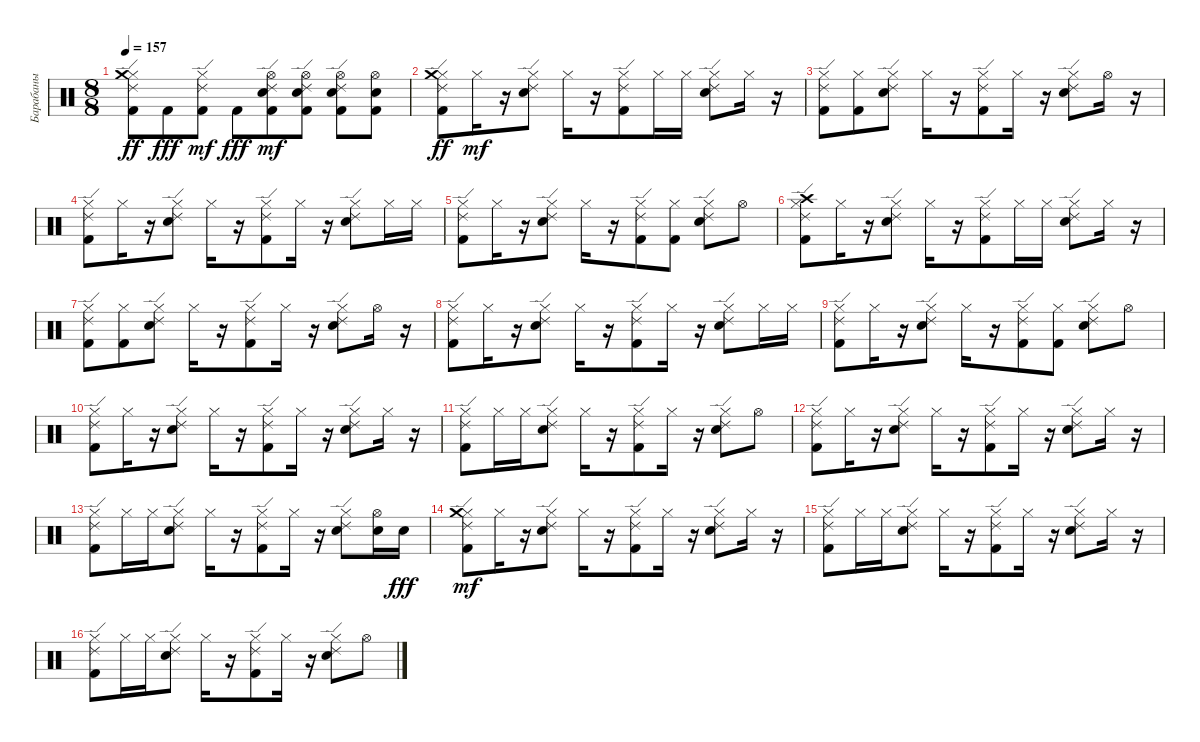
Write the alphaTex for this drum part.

\track ("Барабаны" "Барабаны") {instrument percussion}
\staff {score}
\articulation defaults
\ts (8 8)
\tempo 157
\clef neutral
\ks c
("Kick (hit) 2" "Hi-Hat (closed)" "Ride (edge) 2" "Crash medium (hit)").8{dy ff} "Kick (hit) 2".8{dy fff} ("Kick (hit) 2" "Hi-Hat (closed)" "Ride (edge) 2").8{dy mf} "Kick (hit) 2".8{dy fff} ("Kick (hit) 2" "Snare (hit) 2" "Hi-Hat (open)" "Ride (edge) 2").8{dy mf} ("Kick (hit) 2" "Snare (hit) 2" "Hi-Hat (open)" "Ride (edge) 2").8 ("Kick (hit) 2" "Snare (hit) 2" "Hi-Hat (open)" "Ride (edge) 2").8 ("Kick (hit) 2" "Snare (hit) 2" "Hi-Hat (open)").8 |
("Kick (hit) 2" "Hi-Hat (closed)" "Ride (edge) 2" "Crash medium (hit)").8{dy ff} "Hi-Hat (closed)".16{dy mf} r.16 ("Snare (hit) 2" "Hi-Hat (closed)" "Ride (edge) 2").8 "Hi-Hat (closed)".16 r.16 ("Kick (hit) 2" "Hi-Hat (closed)" "Ride (edge) 2").8 "Hi-Hat (closed)".16 "Hi-Hat (closed)".16 ("Snare (hit) 2" "Hi-Hat (closed)" "Ride (edge) 2").8 "Hi-Hat (closed)".16 r.16 |
("Kick (hit) 2" "Hi-Hat (closed)" "Ride (edge) 2").8 ("Kick (hit) 2" "Hi-Hat (closed)").8 ("Snare (hit) 2" "Hi-Hat (closed)" "Ride (edge) 2").8 "Hi-Hat (closed)".16 r.16 ("Kick (hit) 2" "Hi-Hat (closed)" "Ride (edge) 2").8 "Hi-Hat (closed)".16 r.16 ("Snare (hit) 2" "Hi-Hat (closed)" "Ride (edge) 2").8 "Hi-Hat (open)".16 r.16 |
("Kick (hit) 2" "Hi-Hat (closed)" "Ride (edge) 2").8 "Hi-Hat (closed)".16 r.16 ("Snare (hit) 2" "Hi-Hat (closed)" "Ride (edge) 2").8 "Hi-Hat (closed)".16 r.16 ("Kick (hit) 2" "Hi-Hat (closed)" "Ride (edge) 2").8 "Hi-Hat (closed)".16 r.16 ("Snare (hit) 2" "Hi-Hat (closed)" "Ride (edge) 2").8 "Hi-Hat (closed)".16 "Hi-Hat (closed)".16 |
("Kick (hit) 2" "Hi-Hat (closed)" "Ride (edge) 2").8 "Hi-Hat (closed)".16 r.16 ("Snare (hit) 2" "Hi-Hat (closed)" "Ride (edge) 2").8 "Hi-Hat (closed)".16 r.16 ("Kick (hit) 2" "Hi-Hat (closed)" "Ride (edge) 2").8 ("Kick (hit) 2" "Hi-Hat (closed)").8 ("Snare (hit) 2" "Hi-Hat (closed)" "Ride (edge) 2").8 "Hi-Hat (open)".8 |
("Kick (hit) 2" "Hi-Hat (closed)" "Ride (edge) 2" "Crash high (hit)").8 "Hi-Hat (closed)".16 r.16 ("Snare (hit) 2" "Hi-Hat (closed)" "Ride (edge) 2").8 "Hi-Hat (closed)".16 r.16 ("Kick (hit) 2" "Hi-Hat (closed)" "Ride (edge) 2").8 "Hi-Hat (closed)".16 "Hi-Hat (closed)".16 ("Snare (hit) 2" "Hi-Hat (closed)" "Ride (edge) 2").8 "Hi-Hat (closed)".16 r.16 |
("Kick (hit) 2" "Hi-Hat (closed)" "Ride (edge) 2").8 ("Kick (hit) 2" "Hi-Hat (closed)").8 ("Snare (hit) 2" "Hi-Hat (closed)" "Ride (edge) 2").8 "Hi-Hat (closed)".16 r.16 ("Kick (hit) 2" "Hi-Hat (closed)" "Ride (edge) 2").8 "Hi-Hat (closed)".16 r.16 ("Snare (hit) 2" "Hi-Hat (closed)" "Ride (edge) 2").8 "Hi-Hat (open)".16 r.16 |
("Kick (hit) 2" "Hi-Hat (closed)" "Ride (edge) 2").8 "Hi-Hat (closed)".16 r.16 ("Snare (hit) 2" "Hi-Hat (closed)" "Ride (edge) 2").8 "Hi-Hat (closed)".16 r.16 ("Kick (hit) 2" "Hi-Hat (closed)" "Ride (edge) 2").8 "Hi-Hat (closed)".16 r.16 ("Snare (hit) 2" "Hi-Hat (closed)" "Ride (edge) 2").8 "Hi-Hat (closed)".16 "Hi-Hat (closed)".16 |
("Kick (hit) 2" "Hi-Hat (closed)" "Ride (edge) 2").8 "Hi-Hat (closed)".16 r.16 ("Snare (hit) 2" "Hi-Hat (closed)" "Ride (edge) 2").8 "Hi-Hat (closed)".16 r.16 ("Kick (hit) 2" "Hi-Hat (closed)" "Ride (edge) 2").8 ("Kick (hit) 2" "Hi-Hat (closed)").8 ("Snare (hit) 2" "Hi-Hat (closed)" "Ride (edge) 2").8 "Hi-Hat (open)".8 |
("Kick (hit) 2" "Hi-Hat (closed)" "Ride (edge) 2").8 "Hi-Hat (closed)".16 r.16 ("Snare (hit) 2" "Hi-Hat (closed)" "Ride (edge) 2").8 "Hi-Hat (closed)".16 r.16 ("Kick (hit) 2" "Hi-Hat (closed)" "Ride (edge) 2").8 "Hi-Hat (closed)".16 r.16 ("Snare (hit) 2" "Hi-Hat (closed)" "Ride (edge) 2").8 "Hi-Hat (closed)".16 r.16 |
("Kick (hit) 2" "Hi-Hat (closed)" "Ride (edge) 2").8 "Hi-Hat (closed)".16 "Hi-Hat (closed)".16 ("Snare (hit) 2" "Hi-Hat (closed)" "Ride (edge) 2").8 "Hi-Hat (closed)".16 r.16 ("Kick (hit) 2" "Hi-Hat (closed)" "Ride (edge) 2").8 "Hi-Hat (closed)".16 r.16 ("Snare (hit) 2" "Hi-Hat (closed)" "Ride (edge) 2").8 "Hi-Hat (open)".8 |
("Kick (hit) 2" "Hi-Hat (closed)" "Ride (edge) 2").8 "Hi-Hat (closed)".16 r.16 ("Snare (hit) 2" "Hi-Hat (closed)" "Ride (edge) 2").8 "Hi-Hat (closed)".16 r.16 ("Kick (hit) 2" "Hi-Hat (closed)" "Ride (edge) 2").8 "Hi-Hat (closed)".16 r.16 ("Snare (hit) 2" "Hi-Hat (closed)" "Ride (edge) 2").8 "Hi-Hat (closed)".16 r.16 |
("Kick (hit) 2" "Hi-Hat (closed)" "Ride (edge) 2").8 "Hi-Hat (closed)".16 "Hi-Hat (closed)".16 ("Snare (hit) 2" "Hi-Hat (closed)" "Ride (edge) 2").8 "Hi-Hat (closed)".16 r.16 ("Kick (hit) 2" "Hi-Hat (closed)" "Ride (edge) 2").8 "Hi-Hat (closed)".16 r.16 ("Snare (hit) 2" "Hi-Hat (closed)" "Ride (edge) 2").8 ("Snare (hit) 2" "Hi-Hat (open)").16 "Snare (hit) 2".16{dy fff} |
("Kick (hit) 2" "Hi-Hat (closed)" "Ride (edge) 2" "Crash medium (hit)").8{dy mf} "Hi-Hat (closed)".16 r.16 ("Snare (hit) 2" "Hi-Hat (closed)" "Ride (edge) 2").8 "Hi-Hat (closed)".16 r.16 ("Kick (hit) 2" "Hi-Hat (closed)" "Ride (edge) 2").8 "Hi-Hat (closed)".16 r.16 ("Snare (hit) 2" "Hi-Hat (closed)" "Ride (edge) 2").8 "Hi-Hat (closed)".16 r.16 |
("Kick (hit) 2" "Hi-Hat (closed)" "Ride (edge) 2").8 "Hi-Hat (closed)".16 "Hi-Hat (closed)".16 ("Snare (hit) 2" "Hi-Hat (closed)" "Ride (edge) 2").8 "Hi-Hat (closed)".16 r.16 ("Kick (hit) 2" "Hi-Hat (closed)" "Ride (edge) 2").8 "Hi-Hat (closed)".16 r.16 ("Snare (hit) 2" "Hi-Hat (closed)" "Ride (edge) 2").8 "Hi-Hat (closed)".16 r.16 |
("Kick (hit) 2" "Hi-Hat (closed)" "Ride (edge) 2").8 "Hi-Hat (closed)".16 "Hi-Hat (closed)".16 ("Snare (hit) 2" "Hi-Hat (closed)" "Ride (edge) 2").8 "Hi-Hat (closed)".16 r.16 ("Kick (hit) 2" "Hi-Hat (closed)" "Ride (edge) 2").8 "Hi-Hat (closed)".16 r.16 ("Snare (hit) 2" "Hi-Hat (closed)" "Ride (edge) 2").8 "Hi-Hat (open)".8
